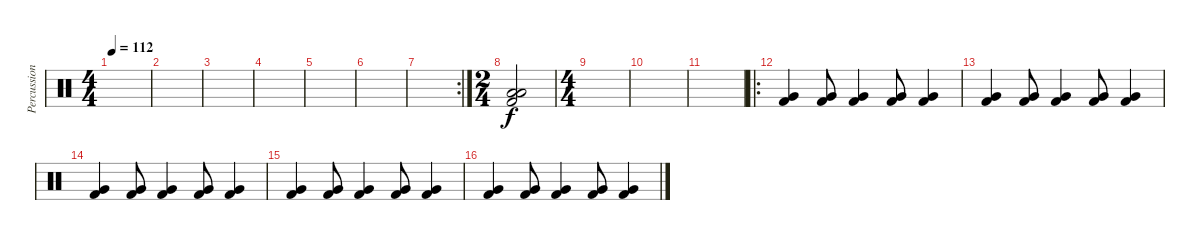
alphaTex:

\track ("Percussion" "Percussion") {instrument percussion}
\staff {score}
\articulation defaults
\ts (4 4)
\tempo 112
\clef neutral
\ks c
|
|
|
|
|
|
\rc 2
|
\ts (2 4)
("Low Tom (hit)" "Low Tom (hit)" "Kick (hit) 2").2 |
\ts (4 4)
|
|
|
\ro
("Very Low Tom (hit)" "Kick (hit) 2").4 ("Very Low Tom (hit)" "Kick (hit) 2").8 ("Very Low Tom (hit)" "Kick (hit) 2").4 ("Very Low Tom (hit)" "Kick (hit) 2").8 ("Very Low Tom (hit)" "Kick (hit) 2").4 |
("Very Low Tom (hit)" "Kick (hit) 2").4 ("Very Low Tom (hit)" "Kick (hit) 2").8 ("Very Low Tom (hit)" "Kick (hit) 2").4 ("Very Low Tom (hit)" "Kick (hit) 2").8 ("Very Low Tom (hit)" "Kick (hit) 2").4 |
("Very Low Tom (hit)" "Kick (hit) 2").4 ("Very Low Tom (hit)" "Kick (hit) 2").8 ("Very Low Tom (hit)" "Kick (hit) 2").4 ("Very Low Tom (hit)" "Kick (hit) 2").8 ("Very Low Tom (hit)" "Kick (hit) 2").4 |
("Very Low Tom (hit)" "Kick (hit) 2").4 ("Very Low Tom (hit)" "Kick (hit) 2").8 ("Very Low Tom (hit)" "Kick (hit) 2").4 ("Very Low Tom (hit)" "Kick (hit) 2").8 ("Very Low Tom (hit)" "Kick (hit) 2").4 |
("Very Low Tom (hit)" "Kick (hit) 2").4 ("Very Low Tom (hit)" "Kick (hit) 2").8 ("Very Low Tom (hit)" "Kick (hit) 2").4 ("Very Low Tom (hit)" "Kick (hit) 2").8 ("Very Low Tom (hit)" "Kick (hit) 2").4
